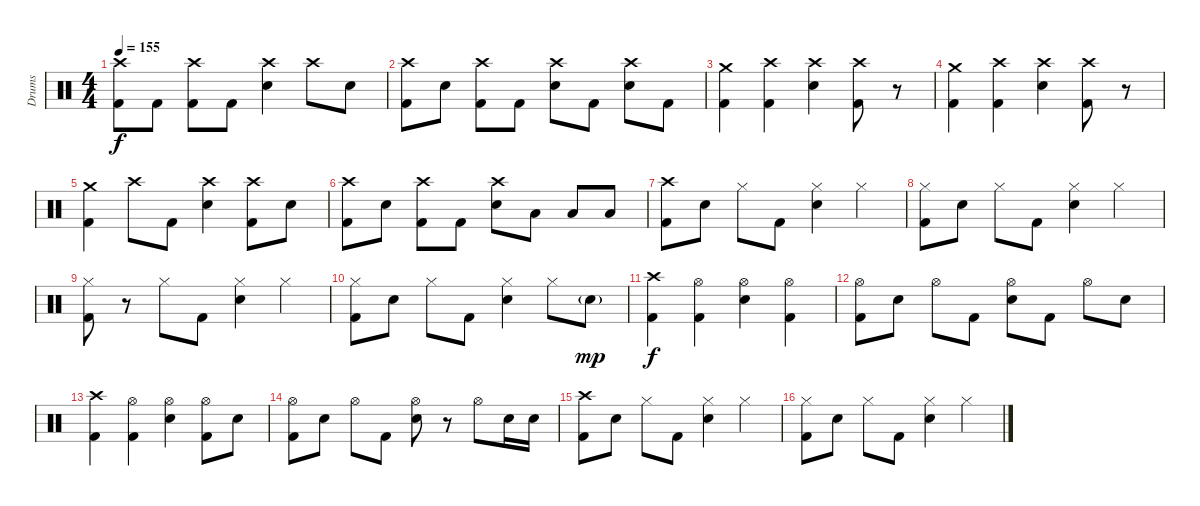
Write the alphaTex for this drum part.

\track ("Drums" "Drums") {instrument percussion}
\staff {score}
\articulation defaults
\ts (4 4)
\tempo 155
\clef neutral
\ks c
("Crash high (hit)" "Kick (hit) 2").8{dy f} "Kick (hit) 2".8 ("Crash high (hit)" "Kick (hit) 2").8 "Kick (hit) 2".8 ("Crash high (hit)" "Snare (hit) 2").4 "Crash high (hit)".8 "Snare (hit) 2".8 |
("Crash high (hit)" "Kick (hit) 2").8 "Snare (hit) 2".8 ("Crash high (hit)" "Kick (hit) 2").8 "Kick (hit) 2".8 ("Crash high (hit)" "Snare (hit) 2").8 "Kick (hit) 2".8 ("Crash high (hit)" "Snare (hit) 2").8 "Kick (hit) 2".8 |
("Crash medium (hit)" "Kick (hit) 2").4 ("Crash high (hit)" "Kick (hit) 2").4 ("Crash high (hit)" "Snare (hit) 2").4 ("Crash high (hit)" "Kick (hit) 2").8 r.8 |
("Crash medium (hit)" "Kick (hit) 2").4 ("Crash high (hit)" "Kick (hit) 2").4 ("Crash high (hit)" "Snare (hit) 2").4 ("Crash high (hit)" "Kick (hit) 2").8 r.8 |
("Crash medium (hit)" "Kick (hit) 2").4 "Crash high (hit)".8 "Kick (hit) 2".8 ("Crash high (hit)" "Snare (hit) 2").4 ("Crash high (hit)" "Kick (hit) 2").8 "Snare (hit) 2".8 |
("Crash high (hit)" "Kick (hit) 2").8 "Snare (hit) 2".8 ("Crash high (hit)" "Kick (hit) 2").8 "Kick (hit) 2".8 ("Crash high (hit)" "Snare (hit) 2").8 "Low Tom (hit)".8 "Low Tom (hit)".8 "Low Tom (hit)".8 |
("Crash high (hit)" "Kick (hit) 2").8 "Snare (hit) 2".8 "Hi-Hat (closed)".8 "Kick (hit) 2".8 ("Hi-Hat (closed)" "Snare (hit) 2").4 "Hi-Hat (closed)".4 |
("Hi-Hat (closed)" "Kick (hit) 2").8 "Snare (hit) 2".8 "Hi-Hat (closed)".8 "Kick (hit) 2".8 ("Hi-Hat (closed)" "Snare (hit) 2").4 "Hi-Hat (closed)".4 |
("Hi-Hat (closed)" "Kick (hit) 2").8 r.8 "Hi-Hat (closed)".8 "Kick (hit) 2".8 ("Hi-Hat (closed)" "Snare (hit) 2").4 "Hi-Hat (closed)".4 |
("Hi-Hat (closed)" "Kick (hit) 2").8 "Snare (hit) 2".8 "Hi-Hat (closed)".8 "Kick (hit) 2".8 ("Hi-Hat (closed)" "Snare (hit) 2").4 "Hi-Hat (closed)".8 "Snare (hit) 2"{g}.8{dy mp} |
("Crash high (hit)" "Kick (hit) 2").4{dy f} ("Hi-Hat (open)" "Kick (hit) 2").4 ("Hi-Hat (open)" "Snare (hit) 2").4 ("Hi-Hat (open)" "Kick (hit) 2").4 |
("Hi-Hat (open)" "Kick (hit) 2").8 "Snare (hit) 2".8 "Hi-Hat (open)".8 "Kick (hit) 2".8 ("Hi-Hat (open)" "Snare (hit) 2").8 "Kick (hit) 2".8 "Hi-Hat (open)".8 "Snare (hit) 2".8 |
("Crash high (hit)" "Kick (hit) 2").4 ("Hi-Hat (open)" "Kick (hit) 2").4 ("Hi-Hat (open)" "Snare (hit) 2").4 ("Hi-Hat (open)" "Kick (hit) 2").8 "Snare (hit) 2".8 |
("Hi-Hat (open)" "Kick (hit) 2").8 "Snare (hit) 2".8 "Hi-Hat (open)".8 "Kick (hit) 2".8 ("Hi-Hat (open)" "Snare (hit) 2").8 r.8 "Hi-Hat (open)".8 "Snare (hit) 2".16 "Snare (hit) 2".16 |
("Crash high (hit)" "Kick (hit) 2").8 "Snare (hit) 2".8 "Hi-Hat (closed)".8 "Kick (hit) 2".8 ("Hi-Hat (closed)" "Snare (hit) 2").4 "Hi-Hat (closed)".4 |
("Hi-Hat (closed)" "Kick (hit) 2").8 "Snare (hit) 2".8 "Hi-Hat (closed)".8 "Kick (hit) 2".8 ("Hi-Hat (closed)" "Snare (hit) 2").4 "Hi-Hat (closed)".4
